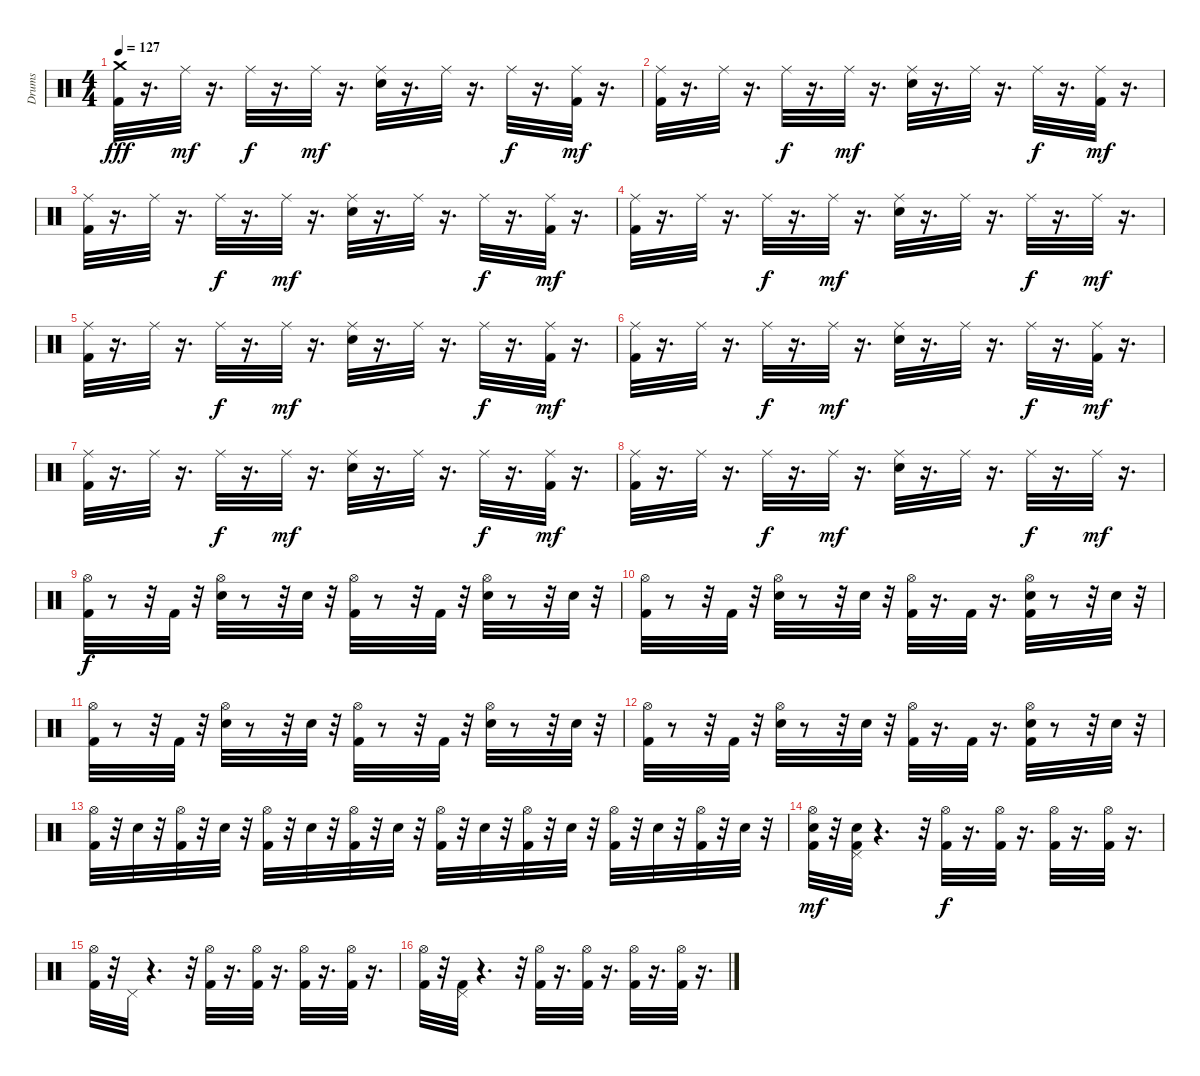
\track ("Drums" "Drums") {instrument percussion}
\staff {score}
\articulation defaults
\ts (4 4)
\tempo 127
\clef neutral
\ks c
("Kick (hit) 2" "Crash medium (hit)").32{dy fff} r.16{d} "Ride (middle)".32{dy mf} r.16{d} "Ride (middle)".32{dy f} r.16{d} "Ride (middle)".32{dy mf} r.16{d} ("Ride (middle)" "Snare (hit) 2").32 r.16{d} "Ride (middle)".32 r.16{d} "Ride (middle)".32{dy f} r.16{d} ("Ride (middle)" "Kick (hit) 2").32{dy mf} r.16{d} |
("Ride (middle)" "Kick (hit) 2").32 r.16{d} "Ride (middle)".32 r.16{d} "Ride (middle)".32{dy f} r.16{d} "Ride (middle)".32{dy mf} r.16{d} ("Ride (middle)" "Snare (hit) 2").32 r.16{d} "Ride (middle)".32 r.16{d} "Ride (middle)".32{dy f} r.16{d} ("Ride (middle)" "Kick (hit) 2").32{dy mf} r.16{d} |
("Ride (middle)" "Kick (hit) 2").32 r.16{d} "Ride (middle)".32 r.16{d} "Ride (middle)".32{dy f} r.16{d} "Ride (middle)".32{dy mf} r.16{d} ("Ride (middle)" "Snare (hit) 2").32 r.16{d} "Ride (middle)".32 r.16{d} "Ride (middle)".32{dy f} r.16{d} ("Ride (middle)" "Kick (hit) 2").32{dy mf} r.16{d} |
("Ride (middle)" "Kick (hit) 2").32 r.16{d} "Ride (middle)".32 r.16{d} "Ride (middle)".32{dy f} r.16{d} "Ride (middle)".32{dy mf} r.16{d} ("Ride (middle)" "Snare (hit) 2").32 r.16{d} "Ride (middle)".32 r.16{d} "Ride (middle)".32{dy f} r.16{d} "Ride (middle)".32{dy mf} r.16{d} |
("Ride (middle)" "Kick (hit) 2").32 r.16{d} "Ride (middle)".32 r.16{d} "Ride (middle)".32{dy f} r.16{d} "Ride (middle)".32{dy mf} r.16{d} ("Ride (middle)" "Snare (hit) 2").32 r.16{d} "Ride (middle)".32 r.16{d} "Ride (middle)".32{dy f} r.16{d} ("Ride (middle)" "Kick (hit) 2").32{dy mf} r.16{d} |
("Ride (middle)" "Kick (hit) 2").32 r.16{d} "Ride (middle)".32 r.16{d} "Ride (middle)".32{dy f} r.16{d} "Ride (middle)".32{dy mf} r.16{d} ("Ride (middle)" "Snare (hit) 2").32 r.16{d} "Ride (middle)".32 r.16{d} "Ride (middle)".32{dy f} r.16{d} ("Ride (middle)" "Kick (hit) 2").32{dy mf} r.16{d} |
("Ride (middle)" "Kick (hit) 2").32 r.16{d} "Ride (middle)".32 r.16{d} "Ride (middle)".32{dy f} r.16{d} "Ride (middle)".32{dy mf} r.16{d} ("Ride (middle)" "Snare (hit) 2").32 r.16{d} "Ride (middle)".32 r.16{d} "Ride (middle)".32{dy f} r.16{d} ("Ride (middle)" "Kick (hit) 2").32{dy mf} r.16{d} |
("Kick (hit) 2" "Ride (middle)").32 r.16{d} "Ride (middle)".32 r.16{d} "Ride (middle)".32{dy f} r.16{d} "Ride (middle)".32{dy mf} r.16{d} ("Snare (hit) 2" "Ride (middle)").32 r.16{d} "Ride (middle)".32 r.16{d} "Ride (middle)".32{dy f} r.16{d} "Ride (middle)".32{dy mf} r.16{d} |
("Hi-Hat (open)" "Kick (hit) 2").32{dy f} r.8 r.32 "Kick (hit) 2".32 r.32 ("Hi-Hat (open)" "Snare (hit) 2").32 r.8 r.32 "Snare (hit) 2".32 r.32 ("Hi-Hat (open)" "Kick (hit) 2").32 r.8 r.32 "Kick (hit) 2".32 r.32 ("Hi-Hat (open)" "Snare (hit) 2").32 r.8 r.32 "Snare (hit) 2".32 r.32 |
("Kick (hit) 2" "Hi-Hat (open)").32 r.8 r.32 "Kick (hit) 2".32 r.32 ("Hi-Hat (open)" "Snare (hit) 2").32 r.8 r.32 "Snare (hit) 2".32 r.32 ("Hi-Hat (open)" "Kick (hit) 2").32 r.16{d} "Kick (hit) 2".32 r.16{d} ("Hi-Hat (open)" "Snare (hit) 2" "Kick (hit) 2").32 r.8 r.32 "Snare (hit) 2".32 r.32 |
("Kick (hit) 2" "Hi-Hat (open)").32 r.8 r.32 "Kick (hit) 2".32 r.32 ("Hi-Hat (open)" "Snare (hit) 2").32 r.8 r.32 "Snare (hit) 2".32 r.32 ("Hi-Hat (open)" "Kick (hit) 2").32 r.8 r.32 "Kick (hit) 2".32 r.32 ("Hi-Hat (open)" "Snare (hit) 2").32 r.8 r.32 "Snare (hit) 2".32 r.32 |
("Hi-Hat (open)" "Kick (hit) 2").32 r.8 r.32 "Kick (hit) 2".32 r.32 ("Hi-Hat (open)" "Snare (hit) 2").32 r.8 r.32 "Snare (hit) 2".32 r.32 ("Hi-Hat (open)" "Kick (hit) 2").32 r.16{d} "Kick (hit) 2".32 r.16{d} ("Snare (hit) 2" "Kick (hit) 2" "Hi-Hat (open)").32 r.8 r.32 "Snare (hit) 2".32 r.32 |
("Kick (hit) 2" "Hi-Hat (open)").32 r.32 "Snare (hit) 2".32 r.32 ("Hi-Hat (open)" "Kick (hit) 2").32 r.32 "Snare (hit) 2".32 r.32 ("Hi-Hat (open)" "Kick (hit) 2").32 r.32 "Snare (hit) 2".32 r.32 ("Hi-Hat (open)" "Kick (hit) 2").32 r.32 "Snare (hit) 2".32 r.32 ("Hi-Hat (open)" "Kick (hit) 2").32 r.32 "Snare (hit) 2".32 r.32 ("Hi-Hat (open)" "Kick (hit) 2").32 r.32 "Snare (hit) 2".32 r.32 ("Hi-Hat (open)" "Kick (hit) 2").32 r.32 "Snare (hit) 2".32 r.32 ("Hi-Hat (open)" "Kick (hit) 2").32 r.32 "Snare (hit) 2".32 r.32 |
("Kick (hit) 2" "Hi-Hat (open)" "Snare (hit) 2").32{dy mf} r.32 ("Kick (hit) 2" "Snare (hit) 2" "Pedal Hi-Hat (hit)").32 r.4{d} r.32 ("Hi-Hat (open)" "Kick (hit) 2").32{dy f} r.16{d} ("Hi-Hat (open)" "Kick (hit) 2").32 r.16{d} ("Hi-Hat (open)" "Kick (hit) 2").32 r.16{d} ("Hi-Hat (open)" "Kick (hit) 2").32 r.16{d} |
("Hi-Hat (open)" "Kick (hit) 2").32 r.32 "Pedal Hi-Hat (hit)".32 r.4{d} r.32 ("Hi-Hat (open)" "Kick (hit) 2").32 r.16{d} ("Hi-Hat (open)" "Kick (hit) 2").32 r.16{d} ("Hi-Hat (open)" "Kick (hit) 2").32 r.16{d} ("Hi-Hat (open)" "Kick (hit) 2").32 r.16{d} |
("Hi-Hat (open)" "Kick (hit) 2").32 r.32 ("Pedal Hi-Hat (hit)" "Kick (hit) 2").32 r.4{d} r.32 ("Kick (hit) 2" "Hi-Hat (open)").32 r.16{d} ("Hi-Hat (open)" "Kick (hit) 2").32 r.16{d} ("Hi-Hat (open)" "Kick (hit) 2").32 r.16{d} ("Hi-Hat (open)" "Kick (hit) 2").32 r.16{d}
